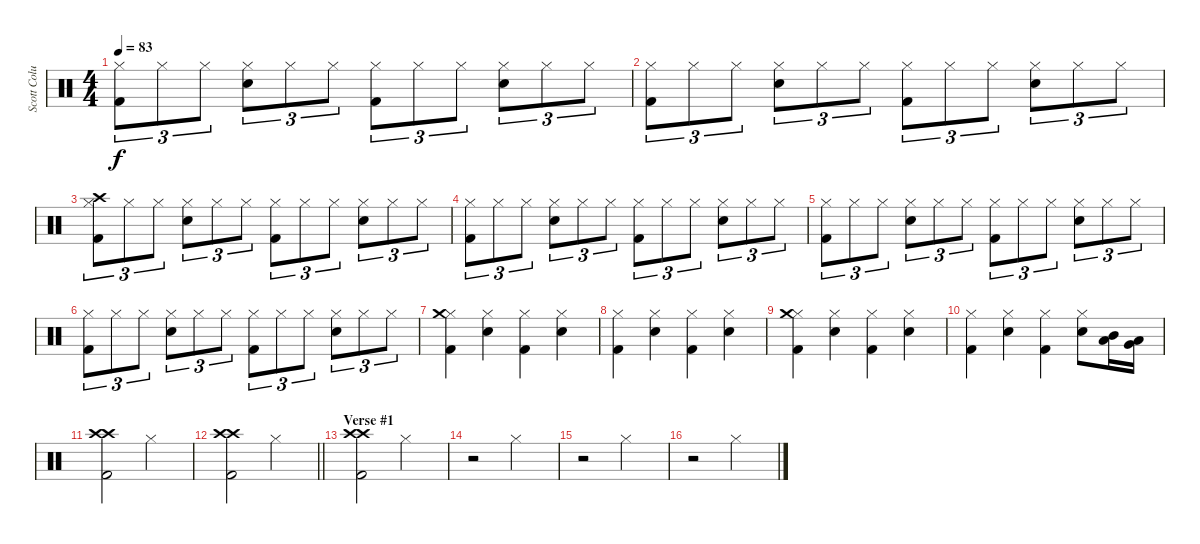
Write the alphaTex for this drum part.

\track ("Scott Columbus" "Scott Colu") {instrument percussion}
\staff {score}
\articulation defaults
\ts (4 4)
\tempo 83
\clef neutral
\ks c
("Kick (hit) 2" "Hi-Hat (closed)").8{tu (3 2) dy f} "Hi-Hat (closed)".8{tu (3 2)} "Hi-Hat (closed)".8{tu (3 2)} ("Electric Snare (hit)" "Hi-Hat (closed)").8{tu (3 2)} "Hi-Hat (closed)".8{tu (3 2)} "Hi-Hat (closed)".8{tu (3 2)} ("Kick (hit) 2" "Hi-Hat (closed)").8{tu (3 2)} "Hi-Hat (closed)".8{tu (3 2)} "Hi-Hat (closed)".8{tu (3 2)} ("Electric Snare (hit)" "Hi-Hat (closed)").8{tu (3 2)} "Hi-Hat (closed)".8{tu (3 2)} "Hi-Hat (closed)".8{tu (3 2)} |
("Kick (hit) 2" "Hi-Hat (closed)").8{tu (3 2)} "Hi-Hat (closed)".8{tu (3 2)} "Hi-Hat (closed)".8{tu (3 2)} ("Electric Snare (hit)" "Hi-Hat (closed)").8{tu (3 2)} "Hi-Hat (closed)".8{tu (3 2)} "Hi-Hat (closed)".8{tu (3 2)} ("Kick (hit) 2" "Hi-Hat (closed)").8{tu (3 2)} "Hi-Hat (closed)".8{tu (3 2)} "Hi-Hat (closed)".8{tu (3 2)} ("Electric Snare (hit)" "Hi-Hat (closed)").8{tu (3 2)} "Hi-Hat (closed)".8{tu (3 2)} "Hi-Hat (closed)".8{tu (3 2)} |
("Kick (hit) 2" "Hi-Hat (closed)" "Crash high (hit)").8{tu (3 2)} "Hi-Hat (closed)".8{tu (3 2)} "Hi-Hat (closed)".8{tu (3 2)} ("Electric Snare (hit)" "Hi-Hat (closed)").8{tu (3 2)} "Hi-Hat (closed)".8{tu (3 2)} "Hi-Hat (closed)".8{tu (3 2)} ("Kick (hit) 2" "Hi-Hat (closed)").8{tu (3 2)} "Hi-Hat (closed)".8{tu (3 2)} "Hi-Hat (closed)".8{tu (3 2)} ("Electric Snare (hit)" "Hi-Hat (closed)").8{tu (3 2)} "Hi-Hat (closed)".8{tu (3 2)} "Hi-Hat (closed)".8{tu (3 2)} |
("Kick (hit) 2" "Hi-Hat (closed)").8{tu (3 2)} "Hi-Hat (closed)".8{tu (3 2)} "Hi-Hat (closed)".8{tu (3 2)} ("Electric Snare (hit)" "Hi-Hat (closed)").8{tu (3 2)} "Hi-Hat (closed)".8{tu (3 2)} "Hi-Hat (closed)".8{tu (3 2)} ("Kick (hit) 2" "Hi-Hat (closed)").8{tu (3 2)} "Hi-Hat (closed)".8{tu (3 2)} "Hi-Hat (closed)".8{tu (3 2)} ("Electric Snare (hit)" "Hi-Hat (closed)").8{tu (3 2)} "Hi-Hat (closed)".8{tu (3 2)} "Hi-Hat (closed)".8{tu (3 2)} |
("Kick (hit) 2" "Hi-Hat (closed)").8{tu (3 2)} "Hi-Hat (closed)".8{tu (3 2)} "Hi-Hat (closed)".8{tu (3 2)} ("Electric Snare (hit)" "Hi-Hat (closed)").8{tu (3 2)} "Hi-Hat (closed)".8{tu (3 2)} "Hi-Hat (closed)".8{tu (3 2)} ("Kick (hit) 2" "Hi-Hat (closed)").8{tu (3 2)} "Hi-Hat (closed)".8{tu (3 2)} "Hi-Hat (closed)".8{tu (3 2)} ("Electric Snare (hit)" "Hi-Hat (closed)").8{tu (3 2)} "Hi-Hat (closed)".8{tu (3 2)} "Hi-Hat (closed)".8{tu (3 2)} |
("Kick (hit) 2" "Hi-Hat (closed)").8{tu (3 2)} "Hi-Hat (closed)".8{tu (3 2)} "Hi-Hat (closed)".8{tu (3 2)} ("Electric Snare (hit)" "Hi-Hat (closed)").8{tu (3 2)} "Hi-Hat (closed)".8{tu (3 2)} "Hi-Hat (closed)".8{tu (3 2)} ("Kick (hit) 2" "Hi-Hat (closed)").8{tu (3 2)} "Hi-Hat (closed)".8{tu (3 2)} "Hi-Hat (closed)".8{tu (3 2)} ("Electric Snare (hit)" "Hi-Hat (closed)").8{tu (3 2)} "Hi-Hat (closed)".8{tu (3 2)} "Hi-Hat (closed)".8{tu (3 2)} |
("Kick (hit) 2" "Hi-Hat (closed)" "Crash medium (hit)").4 ("Electric Snare (hit)" "Hi-Hat (closed)").4 ("Kick (hit) 2" "Hi-Hat (closed)").4 ("Electric Snare (hit)" "Hi-Hat (closed)").4 |
("Kick (hit) 2" "Hi-Hat (closed)").4 ("Electric Snare (hit)" "Hi-Hat (closed)").4 ("Kick (hit) 2" "Hi-Hat (closed)").4 ("Electric Snare (hit)" "Hi-Hat (closed)").4 |
("Kick (hit) 2" "Hi-Hat (closed)" "Crash medium (hit)").4 ("Electric Snare (hit)" "Hi-Hat (closed)").4 ("Kick (hit) 2" "Hi-Hat (closed)").4 ("Electric Snare (hit)" "Hi-Hat (closed)").4 |
("Kick (hit) 2" "Hi-Hat (closed)").4 ("Electric Snare (hit)" "Hi-Hat (closed)").4 ("Kick (hit) 2" "Hi-Hat (closed)").4 ("Electric Snare (hit)" "Hi-Hat (closed)").8 ("Mid Tom (hit)" "Low Tom (hit)").16 ("Low Tom (hit)" "Very Low Tom (hit)").16 |
("Kick (hit) 2" "Crash high (hit)" "Crash high (hit)").2 "Hi-Hat (closed)".2 |
\barLineRight lightlight
("Kick (hit) 2" "Crash high (hit)" "Crash high (hit)").2 "Hi-Hat (closed)".2 |
\section ("" "Verse #1")
("Kick (hit) 2" "Crash high (hit)" "Crash high (hit)").2 "Hi-Hat (closed)".2 |
r.2 "Hi-Hat (closed)".2 |
r.2 "Hi-Hat (closed)".2 |
r.2 "Hi-Hat (closed)".2
